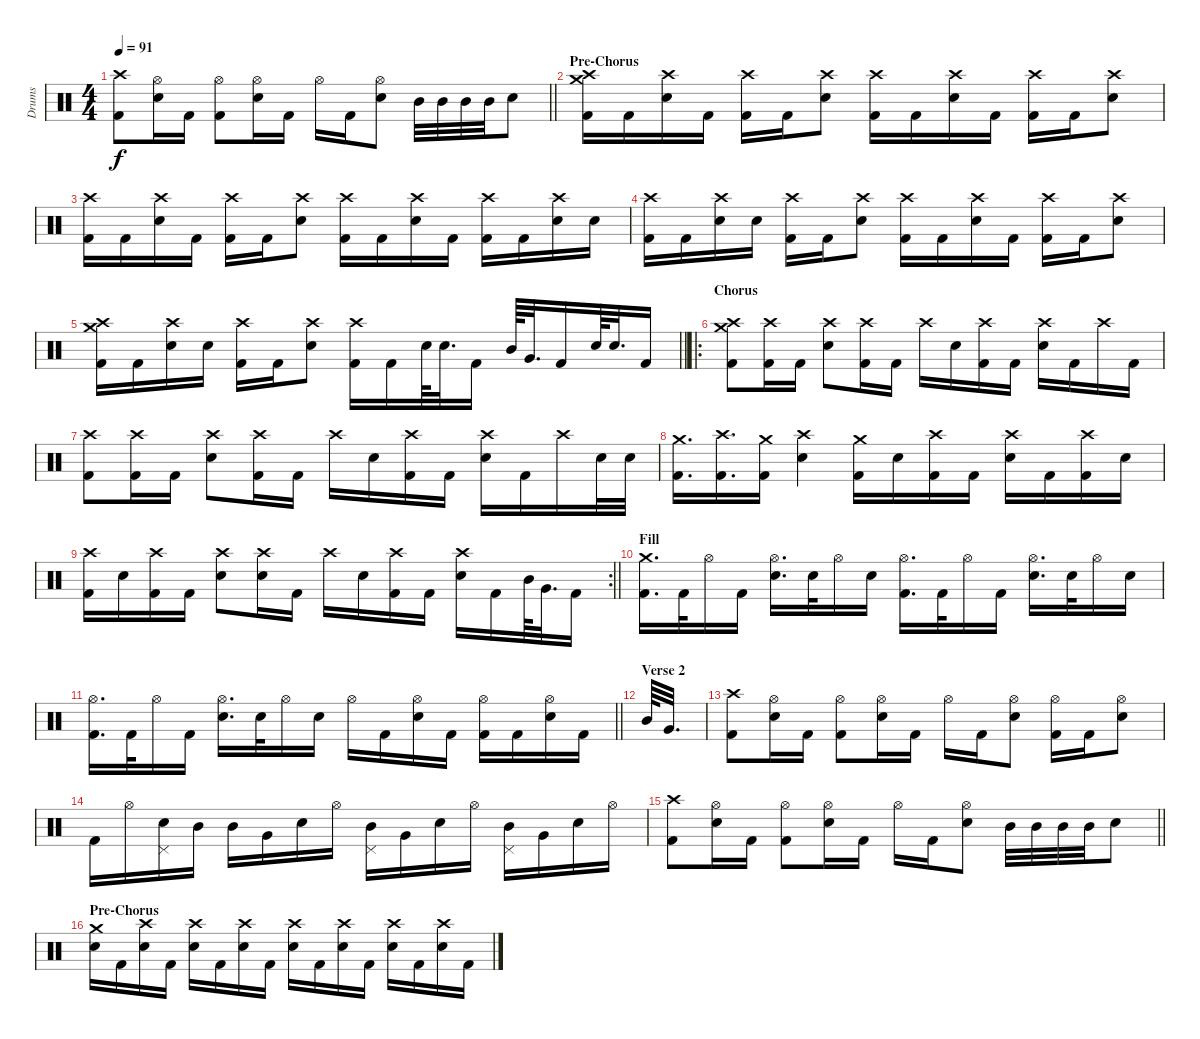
\track ("Drums" "Drums") {instrument percussion bank 34}
\staff {score}
\articulation defaults
\ts (4 4)
\tempo 91
\clef neutral
\barLineRight lightlight
\ks c
("Crash high (hit)" "Kick (hit) 2").8{dy f} ("Hi-Hat (open)" "Electric Snare (hit)").16 "Kick (hit) 2".16 ("Hi-Hat (open)" "Kick (hit) 2").8 ("Hi-Hat (open)" "Electric Snare (hit)").16 "Kick (hit) 2".16 "Hi-Hat (open)".16 "Kick (hit) 2".16 ("Hi-Hat (open)" "Electric Snare (hit)").8 "Mid Tom (hit)".32 "Mid Tom (hit)".32 "Mid Tom (hit)".32 "Mid Tom (hit)".32 "Electric Snare (hit)".8 |
\section ("" "Pre-Chorus")
("Crash medium (hit)" "Crash high (hit)" "Kick (hit) 2").16 "Kick (hit) 2".16 ("Crash high (hit)" "Electric Snare (hit)").16 "Kick (hit) 2".16 ("Crash high (hit)" "Kick (hit) 2").16 "Kick (hit) 2".16 ("Crash high (hit)" "Electric Snare (hit)").8 ("Crash high (hit)" "Kick (hit) 2").16 "Kick (hit) 2".16 ("Crash high (hit)" "Electric Snare (hit)").16 "Kick (hit) 2".16 ("Crash high (hit)" "Kick (hit) 2").16 "Kick (hit) 2".16 ("Crash high (hit)" "Electric Snare (hit)").8 |
("Crash high (hit)" "Kick (hit) 2").16 "Kick (hit) 2".16 ("Crash high (hit)" "Electric Snare (hit)").16 "Kick (hit) 2".16 ("Crash high (hit)" "Kick (hit) 2").16 "Kick (hit) 2".16 ("Crash high (hit)" "Electric Snare (hit)").8 ("Crash high (hit)" "Kick (hit) 2").16 "Kick (hit) 2".16 ("Crash high (hit)" "Electric Snare (hit)").16 "Kick (hit) 2".16 ("Crash high (hit)" "Kick (hit) 2").16 "Kick (hit) 2".16 ("Crash high (hit)" "Electric Snare (hit)").16 "Electric Snare (hit)".16 |
("Crash high (hit)" "Kick (hit) 2").16 "Kick (hit) 2".16 ("Crash high (hit)" "Electric Snare (hit)").16 "Electric Snare (hit)".16 ("Crash high (hit)" "Kick (hit) 2").16 "Kick (hit) 2".16 ("Crash high (hit)" "Electric Snare (hit)").8 ("Crash high (hit)" "Kick (hit) 2").16 "Kick (hit) 2".16 ("Crash high (hit)" "Electric Snare (hit)").16 "Kick (hit) 2".16 ("Crash high (hit)" "Kick (hit) 2").16 "Kick (hit) 2".16 ("Crash high (hit)" "Electric Snare (hit)").8 |
\barLineRight lightlight
("Crash medium (hit)" "Crash high (hit)" "Kick (hit) 2").16 "Kick (hit) 2".16 ("Crash high (hit)" "Electric Snare (hit)").16 "Electric Snare (hit)".16 ("Crash high (hit)" "Kick (hit) 2").16 "Kick (hit) 2".16 ("Crash high (hit)" "Electric Snare (hit)").8 ("Crash high (hit)" "Kick (hit) 2").16 "Kick (hit) 2".16 "Electric Snare (hit)".64 "Electric Snare (hit)".32{d} "Kick (hit) 2".16 "Mid Tom (hit)".64 "Very Low Tom (hit)".32{d} "Kick (hit) 2".16 "Electric Snare (hit)".64 "Electric Snare (hit)".32{d} "Kick (hit) 2".16 |
\ro
\section ("" "Chorus")
("Crash medium (hit)" "Crash high (hit)" "Kick (hit) 2").8 ("Crash high (hit)" "Kick (hit) 2").16 "Kick (hit) 2".16 ("Crash high (hit)" "Electric Snare (hit)").8 ("Crash high (hit)" "Kick (hit) 2").16 "Kick (hit) 2".16 "Crash high (hit)".16 "Electric Snare (hit)".16 ("Crash high (hit)" "Kick (hit) 2").16 "Kick (hit) 2".16 ("Crash high (hit)" "Electric Snare (hit)").16 "Kick (hit) 2".16 "Crash high (hit)".16 "Kick (hit) 2".16 |
("Crash high (hit)" "Kick (hit) 2").8 ("Crash high (hit)" "Kick (hit) 2").16 "Kick (hit) 2".16 ("Crash high (hit)" "Electric Snare (hit)").8 ("Crash high (hit)" "Kick (hit) 2").16 "Kick (hit) 2".16 "Crash high (hit)".16 "Electric Snare (hit)".16 ("Crash high (hit)" "Kick (hit) 2").16 "Kick (hit) 2".16 ("Crash high (hit)" "Electric Snare (hit)").16 "Kick (hit) 2".16 "Crash high (hit)".16 "Electric Snare (hit)".32 "Electric Snare (hit)".32 |
("Crash medium (hit)" "Kick (hit) 2").16{d} ("Crash high (hit)" "Kick (hit) 2").16{d} ("Crash medium (hit)" "Kick (hit) 2").16 ("Crash high (hit)" "Electric Snare (hit)").4 ("Crash medium (hit)" "Kick (hit) 2").16 "Electric Snare (hit)".16 ("Crash high (hit)" "Kick (hit) 2").16 "Kick (hit) 2".16 ("Crash high (hit)" "Electric Snare (hit)").16 "Kick (hit) 2".16 ("Crash high (hit)" "Kick (hit) 2").16 "Electric Snare (hit)".16 |
\rc 2
\barLineRight lightlight
("Crash high (hit)" "Kick (hit) 2").16 "Electric Snare (hit)".16 ("Crash high (hit)" "Kick (hit) 2").16 "Kick (hit) 2".16 ("Crash high (hit)" "Electric Snare (hit)").8 ("Crash high (hit)" "Electric Snare (hit)").16 "Kick (hit) 2".16 "Crash high (hit)".16 "Electric Snare (hit)".16 ("Crash high (hit)" "Kick (hit) 2").16 "Kick (hit) 2".16 ("Crash high (hit)" "Electric Snare (hit)").16 "Kick (hit) 2".16 "Mid Tom (hit)".64 "Very Low Tom (hit)".32{d} "Kick (hit) 2".16 |
\section ("" "Fill")
("Crash medium (hit)" "Kick (hit) 2").16{d} "Kick (hit) 2".32 "Hi-Hat (open)".16 "Kick (hit) 2".16 ("Hi-Hat (open)" "Electric Snare (hit)").16{d} "Electric Snare (hit)".32 "Hi-Hat (open)".16 "Electric Snare (hit)".16 ("Hi-Hat (open)" "Kick (hit) 2").16{d} "Kick (hit) 2".32 "Hi-Hat (open)".16 "Kick (hit) 2".16 ("Hi-Hat (open)" "Electric Snare (hit)").16{d} "Electric Snare (hit)".32 "Hi-Hat (open)".16 "Electric Snare (hit)".16 |
\barLineRight lightlight
("Hi-Hat (open)" "Kick (hit) 2").16{d} "Kick (hit) 2".32 "Hi-Hat (open)".16 "Kick (hit) 2".16 ("Hi-Hat (open)" "Electric Snare (hit)").16{d} "Electric Snare (hit)".32 "Hi-Hat (open)".16 "Electric Snare (hit)".16 "Hi-Hat (open)".16 "Kick (hit) 2".16 ("Hi-Hat (open)" "Electric Snare (hit)").16 "Kick (hit) 2".16 ("Hi-Hat (open)" "Kick (hit) 2").16 "Kick (hit) 2".16 ("Hi-Hat (open)" "Electric Snare (hit)").16 "Kick (hit) 2".16 |
\section ("" "Verse 2")
"Mid Tom (hit)".64 "Very Low Tom (hit)".32{d} |
("Crash high (hit)" "Kick (hit) 2").8 ("Hi-Hat (open)" "Electric Snare (hit)").16 "Kick (hit) 2".16 ("Hi-Hat (open)" "Kick (hit) 2").8 ("Hi-Hat (open)" "Electric Snare (hit)").16 "Kick (hit) 2".16 "Hi-Hat (open)".16 "Kick (hit) 2".16 ("Hi-Hat (open)" "Electric Snare (hit)").8 ("Hi-Hat (open)" "Kick (hit) 2").16 "Kick (hit) 2".16 ("Hi-Hat (open)" "Electric Snare (hit)").8 |
"Kick (hit) 2".16 "Hi-Hat (open)".16 ("Pedal Hi-Hat (hit)" "Electric Snare (hit)").16 "Mid Tom (hit)".16 "Mid Tom (hit)".16 "Very Low Tom (hit)".16 "Electric Snare (hit)".16 "Hi-Hat (open)".16 ("Pedal Hi-Hat (hit)" "Mid Tom (hit)").16 "Very Low Tom (hit)".16 "Electric Snare (hit)".16 "Hi-Hat (open)".16 ("Pedal Hi-Hat (hit)" "Mid Tom (hit)").16 "Very Low Tom (hit)".16 "Electric Snare (hit)".16 "Hi-Hat (open)".16 |
\barLineRight lightlight
("Crash high (hit)" "Kick (hit) 2").8 ("Hi-Hat (open)" "Electric Snare (hit)").16 "Kick (hit) 2".16 ("Hi-Hat (open)" "Kick (hit) 2").8 ("Hi-Hat (open)" "Electric Snare (hit)").16 "Kick (hit) 2".16 "Hi-Hat (open)".16 "Kick (hit) 2".16 ("Hi-Hat (open)" "Electric Snare (hit)").8 "Mid Tom (hit)".32 "Mid Tom (hit)".32 "Mid Tom (hit)".32 "Mid Tom (hit)".32 "Electric Snare (hit)".8 |
\section ("" "Pre-Chorus")
("Crash medium (hit)" "Electric Snare (hit)").16 "Kick (hit) 2".16 ("Crash high (hit)" "Electric Snare (hit)").16 "Kick (hit) 2".16 ("Crash high (hit)" "Electric Snare (hit)").16 "Kick (hit) 2".16 ("Crash high (hit)" "Electric Snare (hit)").16 "Kick (hit) 2".16 ("Crash high (hit)" "Electric Snare (hit)").16 "Kick (hit) 2".16 ("Crash high (hit)" "Electric Snare (hit)").16 "Kick (hit) 2".16 ("Crash high (hit)" "Electric Snare (hit)").16 "Kick (hit) 2".16 ("Crash high (hit)" "Electric Snare (hit)").16 "Kick (hit) 2".16
